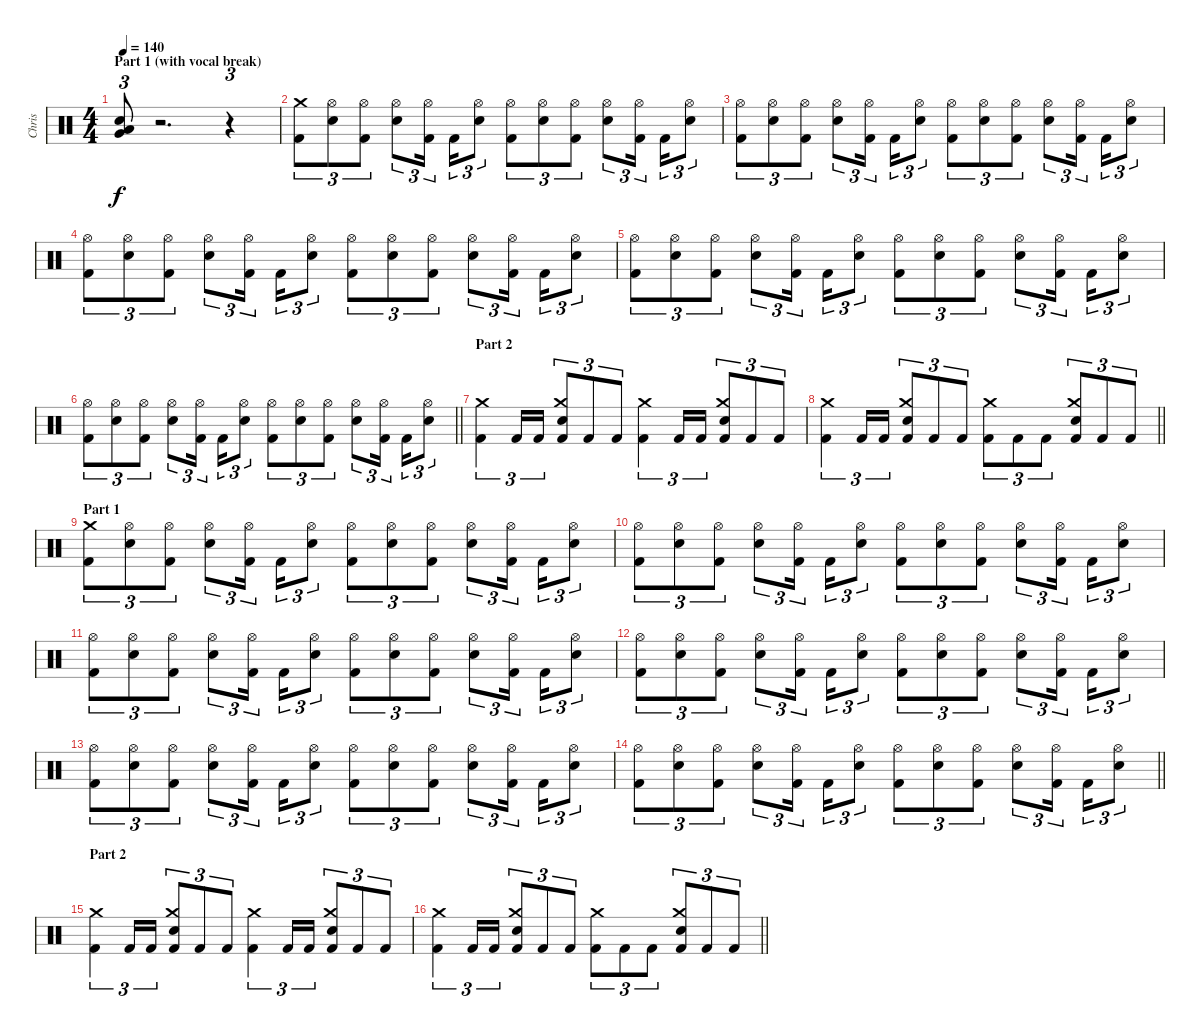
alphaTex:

\track ("Chris" "Chris") {instrument percussion}
\staff {score}
\articulation defaults
\ts (4 4)
\section ("" "Part 1 (with vocal break)")
\tempo 140
\clef neutral
\ks c
("Very Low Tom (hit)" "Low Floor Tom (hit)" "Snare (hit) 2").8{tu (3 2) dy f} r.2{d} r.4{tu (3 2)} |
("Crash medium (hit)" "Kick (hit) 2").8{tu (3 2)} ("Snare (hit) 2" "Hi-Hat (open)").8{tu (3 2)} ("Hi-Hat (open)" "Kick (hit) 2").8{tu (3 2)} ("Snare (hit) 2" "Hi-Hat (open)").8{tu (3 2)} ("Hi-Hat (open)" "Kick (hit) 2").16{tu (3 2) beam splitsecondary} "Kick (hit) 2".16{tu (3 2)} ("Snare (hit) 2" "Hi-Hat (open)").8{tu (3 2)} ("Hi-Hat (open)" "Kick (hit) 2").8{tu (3 2)} ("Snare (hit) 2" "Hi-Hat (open)").8{tu (3 2)} ("Hi-Hat (open)" "Kick (hit) 2").8{tu (3 2)} ("Snare (hit) 2" "Hi-Hat (open)").8{tu (3 2)} ("Hi-Hat (open)" "Kick (hit) 2").16{tu (3 2) beam splitsecondary} "Kick (hit) 2".16{tu (3 2)} ("Snare (hit) 2" "Hi-Hat (open)").8{tu (3 2)} |
("Hi-Hat (open)" "Kick (hit) 2").8{tu (3 2)} ("Snare (hit) 2" "Hi-Hat (open)").8{tu (3 2)} ("Hi-Hat (open)" "Kick (hit) 2").8{tu (3 2)} ("Snare (hit) 2" "Hi-Hat (open)").8{tu (3 2)} ("Hi-Hat (open)" "Kick (hit) 2").16{tu (3 2) beam splitsecondary} "Kick (hit) 2".16{tu (3 2)} ("Snare (hit) 2" "Hi-Hat (open)").8{tu (3 2)} ("Hi-Hat (open)" "Kick (hit) 2").8{tu (3 2)} ("Snare (hit) 2" "Hi-Hat (open)").8{tu (3 2)} ("Hi-Hat (open)" "Kick (hit) 2").8{tu (3 2)} ("Snare (hit) 2" "Hi-Hat (open)").8{tu (3 2)} ("Hi-Hat (open)" "Kick (hit) 2").16{tu (3 2) beam splitsecondary} "Kick (hit) 2".16{tu (3 2)} ("Snare (hit) 2" "Hi-Hat (open)").8{tu (3 2)} |
("Hi-Hat (open)" "Kick (hit) 2").8{tu (3 2)} ("Snare (hit) 2" "Hi-Hat (open)").8{tu (3 2)} ("Hi-Hat (open)" "Kick (hit) 2").8{tu (3 2)} ("Snare (hit) 2" "Hi-Hat (open)").8{tu (3 2)} ("Hi-Hat (open)" "Kick (hit) 2").16{tu (3 2) beam splitsecondary} "Kick (hit) 2".16{tu (3 2)} ("Snare (hit) 2" "Hi-Hat (open)").8{tu (3 2)} ("Hi-Hat (open)" "Kick (hit) 2").8{tu (3 2)} ("Snare (hit) 2" "Hi-Hat (open)").8{tu (3 2)} ("Hi-Hat (open)" "Kick (hit) 2").8{tu (3 2)} ("Snare (hit) 2" "Hi-Hat (open)").8{tu (3 2)} ("Hi-Hat (open)" "Kick (hit) 2").16{tu (3 2) beam splitsecondary} "Kick (hit) 2".16{tu (3 2)} ("Snare (hit) 2" "Hi-Hat (open)").8{tu (3 2)} |
("Hi-Hat (open)" "Kick (hit) 2").8{tu (3 2)} ("Snare (hit) 2" "Hi-Hat (open)").8{tu (3 2)} ("Hi-Hat (open)" "Kick (hit) 2").8{tu (3 2)} ("Snare (hit) 2" "Hi-Hat (open)").8{tu (3 2)} ("Hi-Hat (open)" "Kick (hit) 2").16{tu (3 2) beam splitsecondary} "Kick (hit) 2".16{tu (3 2)} ("Snare (hit) 2" "Hi-Hat (open)").8{tu (3 2)} ("Hi-Hat (open)" "Kick (hit) 2").8{tu (3 2)} ("Snare (hit) 2" "Hi-Hat (open)").8{tu (3 2)} ("Hi-Hat (open)" "Kick (hit) 2").8{tu (3 2)} ("Snare (hit) 2" "Hi-Hat (open)").8{tu (3 2)} ("Hi-Hat (open)" "Kick (hit) 2").16{tu (3 2) beam splitsecondary} "Kick (hit) 2".16{tu (3 2)} ("Snare (hit) 2" "Hi-Hat (open)").8{tu (3 2)} |
\barLineRight lightlight
("Hi-Hat (open)" "Kick (hit) 2").8{tu (3 2)} ("Snare (hit) 2" "Hi-Hat (open)").8{tu (3 2)} ("Hi-Hat (open)" "Kick (hit) 2").8{tu (3 2)} ("Snare (hit) 2" "Hi-Hat (open)").8{tu (3 2)} ("Hi-Hat (open)" "Kick (hit) 2").16{tu (3 2) beam splitsecondary} "Kick (hit) 2".16{tu (3 2)} ("Snare (hit) 2" "Hi-Hat (open)").8{tu (3 2)} ("Hi-Hat (open)" "Kick (hit) 2").8{tu (3 2)} ("Snare (hit) 2" "Hi-Hat (open)").8{tu (3 2)} ("Hi-Hat (open)" "Kick (hit) 2").8{tu (3 2)} ("Snare (hit) 2" "Hi-Hat (open)").8{tu (3 2)} ("Hi-Hat (open)" "Kick (hit) 2").16{tu (3 2) beam splitsecondary} "Kick (hit) 2".16{tu (3 2)} ("Snare (hit) 2" "Hi-Hat (open)").8{tu (3 2)} |
\section ("" "Part 2")
("Crash medium (hit)" "Kick (hit) 2").4{tu (3 2)} "Kick (hit) 2".16{tu (3 2)} "Kick (hit) 2".16{tu (3 2)} ("Crash medium (hit)" "Snare (hit) 2" "Kick (hit) 2").8{tu (3 2)} "Kick (hit) 2".8{tu (3 2)} "Kick (hit) 2".8{tu (3 2)} ("Crash medium (hit)" "Kick (hit) 2").4{tu (3 2)} "Kick (hit) 2".16{tu (3 2)} "Kick (hit) 2".16{tu (3 2)} ("Crash medium (hit)" "Snare (hit) 2" "Kick (hit) 2").8{tu (3 2)} "Kick (hit) 2".8{tu (3 2)} "Kick (hit) 2".8{tu (3 2)} |
\barLineRight lightlight
("Crash medium (hit)" "Kick (hit) 2").4{tu (3 2)} "Kick (hit) 2".16{tu (3 2)} "Kick (hit) 2".16{tu (3 2)} ("Crash medium (hit)" "Snare (hit) 2" "Kick (hit) 2").8{tu (3 2)} "Kick (hit) 2".8{tu (3 2)} "Kick (hit) 2".8{tu (3 2)} ("Crash medium (hit)" "Kick (hit) 2").8{tu (3 2)} "Kick (hit) 2".8{tu (3 2)} "Kick (hit) 2".8{tu (3 2)} ("Crash medium (hit)" "Snare (hit) 2" "Kick (hit) 2").8{tu (3 2)} "Kick (hit) 2".8{tu (3 2)} "Kick (hit) 2".8{tu (3 2)} |
\section ("" "Part 1")
("Crash medium (hit)" "Kick (hit) 2").8{tu (3 2)} ("Snare (hit) 2" "Hi-Hat (open)").8{tu (3 2)} ("Hi-Hat (open)" "Kick (hit) 2").8{tu (3 2)} ("Snare (hit) 2" "Hi-Hat (open)").8{tu (3 2)} ("Hi-Hat (open)" "Kick (hit) 2").16{tu (3 2) beam splitsecondary} "Kick (hit) 2".16{tu (3 2)} ("Snare (hit) 2" "Hi-Hat (open)").8{tu (3 2)} ("Hi-Hat (open)" "Kick (hit) 2").8{tu (3 2)} ("Snare (hit) 2" "Hi-Hat (open)").8{tu (3 2)} ("Hi-Hat (open)" "Kick (hit) 2").8{tu (3 2)} ("Snare (hit) 2" "Hi-Hat (open)").8{tu (3 2)} ("Hi-Hat (open)" "Kick (hit) 2").16{tu (3 2) beam splitsecondary} "Kick (hit) 2".16{tu (3 2)} ("Snare (hit) 2" "Hi-Hat (open)").8{tu (3 2)} |
("Hi-Hat (open)" "Kick (hit) 2").8{tu (3 2)} ("Snare (hit) 2" "Hi-Hat (open)").8{tu (3 2)} ("Hi-Hat (open)" "Kick (hit) 2").8{tu (3 2)} ("Snare (hit) 2" "Hi-Hat (open)").8{tu (3 2)} ("Hi-Hat (open)" "Kick (hit) 2").16{tu (3 2) beam splitsecondary} "Kick (hit) 2".16{tu (3 2)} ("Snare (hit) 2" "Hi-Hat (open)").8{tu (3 2)} ("Hi-Hat (open)" "Kick (hit) 2").8{tu (3 2)} ("Snare (hit) 2" "Hi-Hat (open)").8{tu (3 2)} ("Hi-Hat (open)" "Kick (hit) 2").8{tu (3 2)} ("Snare (hit) 2" "Hi-Hat (open)").8{tu (3 2)} ("Hi-Hat (open)" "Kick (hit) 2").16{tu (3 2) beam splitsecondary} "Kick (hit) 2".16{tu (3 2)} ("Snare (hit) 2" "Hi-Hat (open)").8{tu (3 2)} |
("Hi-Hat (open)" "Kick (hit) 2").8{tu (3 2)} ("Snare (hit) 2" "Hi-Hat (open)").8{tu (3 2)} ("Hi-Hat (open)" "Kick (hit) 2").8{tu (3 2)} ("Snare (hit) 2" "Hi-Hat (open)").8{tu (3 2)} ("Hi-Hat (open)" "Kick (hit) 2").16{tu (3 2) beam splitsecondary} "Kick (hit) 2".16{tu (3 2)} ("Snare (hit) 2" "Hi-Hat (open)").8{tu (3 2)} ("Hi-Hat (open)" "Kick (hit) 2").8{tu (3 2)} ("Snare (hit) 2" "Hi-Hat (open)").8{tu (3 2)} ("Hi-Hat (open)" "Kick (hit) 2").8{tu (3 2)} ("Snare (hit) 2" "Hi-Hat (open)").8{tu (3 2)} ("Hi-Hat (open)" "Kick (hit) 2").16{tu (3 2) beam splitsecondary} "Kick (hit) 2".16{tu (3 2)} ("Snare (hit) 2" "Hi-Hat (open)").8{tu (3 2)} |
("Hi-Hat (open)" "Kick (hit) 2").8{tu (3 2)} ("Snare (hit) 2" "Hi-Hat (open)").8{tu (3 2)} ("Hi-Hat (open)" "Kick (hit) 2").8{tu (3 2)} ("Snare (hit) 2" "Hi-Hat (open)").8{tu (3 2)} ("Hi-Hat (open)" "Kick (hit) 2").16{tu (3 2) beam splitsecondary} "Kick (hit) 2".16{tu (3 2)} ("Snare (hit) 2" "Hi-Hat (open)").8{tu (3 2)} ("Hi-Hat (open)" "Kick (hit) 2").8{tu (3 2)} ("Snare (hit) 2" "Hi-Hat (open)").8{tu (3 2)} ("Hi-Hat (open)" "Kick (hit) 2").8{tu (3 2)} ("Snare (hit) 2" "Hi-Hat (open)").8{tu (3 2)} ("Hi-Hat (open)" "Kick (hit) 2").16{tu (3 2) beam splitsecondary} "Kick (hit) 2".16{tu (3 2)} ("Snare (hit) 2" "Hi-Hat (open)").8{tu (3 2)} |
("Hi-Hat (open)" "Kick (hit) 2").8{tu (3 2)} ("Snare (hit) 2" "Hi-Hat (open)").8{tu (3 2)} ("Hi-Hat (open)" "Kick (hit) 2").8{tu (3 2)} ("Snare (hit) 2" "Hi-Hat (open)").8{tu (3 2)} ("Hi-Hat (open)" "Kick (hit) 2").16{tu (3 2) beam splitsecondary} "Kick (hit) 2".16{tu (3 2)} ("Snare (hit) 2" "Hi-Hat (open)").8{tu (3 2)} ("Hi-Hat (open)" "Kick (hit) 2").8{tu (3 2)} ("Snare (hit) 2" "Hi-Hat (open)").8{tu (3 2)} ("Hi-Hat (open)" "Kick (hit) 2").8{tu (3 2)} ("Snare (hit) 2" "Hi-Hat (open)").8{tu (3 2)} ("Hi-Hat (open)" "Kick (hit) 2").16{tu (3 2) beam splitsecondary} "Kick (hit) 2".16{tu (3 2)} ("Snare (hit) 2" "Hi-Hat (open)").8{tu (3 2)} |
\barLineRight lightlight
("Hi-Hat (open)" "Kick (hit) 2").8{tu (3 2)} ("Snare (hit) 2" "Hi-Hat (open)").8{tu (3 2)} ("Hi-Hat (open)" "Kick (hit) 2").8{tu (3 2)} ("Snare (hit) 2" "Hi-Hat (open)").8{tu (3 2)} ("Hi-Hat (open)" "Kick (hit) 2").16{tu (3 2) beam splitsecondary} "Kick (hit) 2".16{tu (3 2)} ("Snare (hit) 2" "Hi-Hat (open)").8{tu (3 2)} ("Hi-Hat (open)" "Kick (hit) 2").8{tu (3 2)} ("Snare (hit) 2" "Hi-Hat (open)").8{tu (3 2)} ("Hi-Hat (open)" "Kick (hit) 2").8{tu (3 2)} ("Snare (hit) 2" "Hi-Hat (open)").8{tu (3 2)} ("Hi-Hat (open)" "Kick (hit) 2").16{tu (3 2) beam splitsecondary} "Kick (hit) 2".16{tu (3 2)} ("Snare (hit) 2" "Hi-Hat (open)").8{tu (3 2)} |
\section ("" "Part 2")
("Crash medium (hit)" "Kick (hit) 2").4{tu (3 2)} "Kick (hit) 2".16{tu (3 2)} "Kick (hit) 2".16{tu (3 2)} ("Crash medium (hit)" "Snare (hit) 2" "Kick (hit) 2").8{tu (3 2)} "Kick (hit) 2".8{tu (3 2)} "Kick (hit) 2".8{tu (3 2)} ("Crash medium (hit)" "Kick (hit) 2").4{tu (3 2)} "Kick (hit) 2".16{tu (3 2)} "Kick (hit) 2".16{tu (3 2)} ("Crash medium (hit)" "Snare (hit) 2" "Kick (hit) 2").8{tu (3 2)} "Kick (hit) 2".8{tu (3 2)} "Kick (hit) 2".8{tu (3 2)} |
\barLineRight lightlight
("Crash medium (hit)" "Kick (hit) 2").4{tu (3 2)} "Kick (hit) 2".16{tu (3 2)} "Kick (hit) 2".16{tu (3 2)} ("Crash medium (hit)" "Snare (hit) 2" "Kick (hit) 2").8{tu (3 2)} "Kick (hit) 2".8{tu (3 2)} "Kick (hit) 2".8{tu (3 2)} ("Crash medium (hit)" "Kick (hit) 2").8{tu (3 2)} "Kick (hit) 2".8{tu (3 2)} "Kick (hit) 2".8{tu (3 2)} ("Crash medium (hit)" "Snare (hit) 2" "Kick (hit) 2").8{tu (3 2)} "Kick (hit) 2".8{tu (3 2)} "Kick (hit) 2".8{tu (3 2)}
